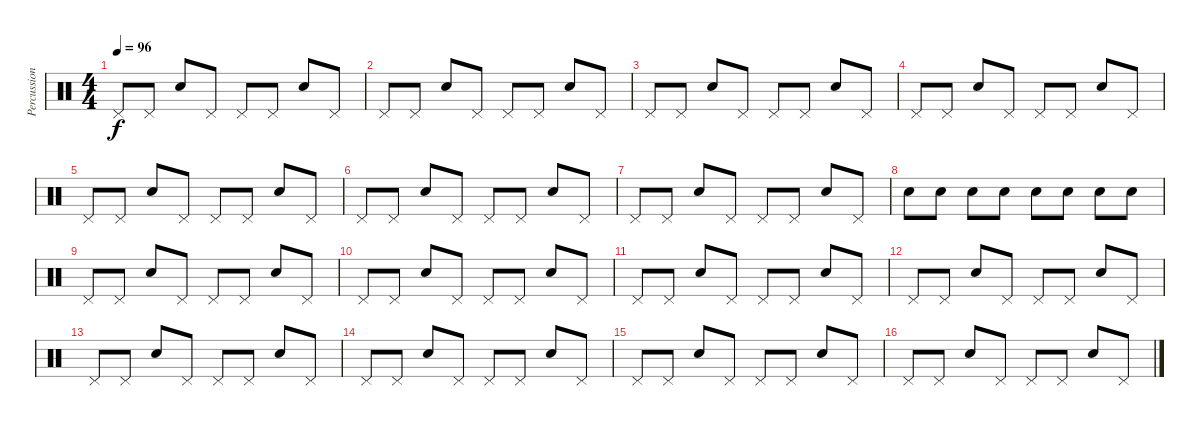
\track ("Percussions" "Percussion") {instrument percussion}
\staff {score}
\articulation defaults
\ts (4 4)
\tempo 96
\clef neutral
\ks c "Pedal Hi-Hat (hit)".8{dy f} "Pedal Hi-Hat (hit)".8 "Snare (hit) 2".8 "Pedal Hi-Hat (hit)".8 "Pedal Hi-Hat (hit)".8 "Pedal Hi-Hat (hit)".8 "Snare (hit) 2".8 "Pedal Hi-Hat (hit)".8
|
"Pedal Hi-Hat (hit)".8 "Pedal Hi-Hat (hit)".8 "Snare (hit) 2".8 "Pedal Hi-Hat (hit)".8 "Pedal Hi-Hat (hit)".8 "Pedal Hi-Hat (hit)".8 "Snare (hit) 2".8 "Pedal Hi-Hat (hit)".8 |
"Pedal Hi-Hat (hit)".8 "Pedal Hi-Hat (hit)".8 "Snare (hit) 2".8 "Pedal Hi-Hat (hit)".8 "Pedal Hi-Hat (hit)".8 "Pedal Hi-Hat (hit)".8 "Snare (hit) 2".8 "Pedal Hi-Hat (hit)".8 |
"Pedal Hi-Hat (hit)".8 "Pedal Hi-Hat (hit)".8 "Snare (hit) 2".8 "Pedal Hi-Hat (hit)".8 "Pedal Hi-Hat (hit)".8 "Pedal Hi-Hat (hit)".8 "Snare (hit) 2".8 "Pedal Hi-Hat (hit)".8 |
"Pedal Hi-Hat (hit)".8 "Pedal Hi-Hat (hit)".8 "Snare (hit) 2".8 "Pedal Hi-Hat (hit)".8 "Pedal Hi-Hat (hit)".8 "Pedal Hi-Hat (hit)".8 "Snare (hit) 2".8 "Pedal Hi-Hat (hit)".8 |
"Pedal Hi-Hat (hit)".8 "Pedal Hi-Hat (hit)".8 "Snare (hit) 2".8 "Pedal Hi-Hat (hit)".8 "Pedal Hi-Hat (hit)".8 "Pedal Hi-Hat (hit)".8 "Snare (hit) 2".8 "Pedal Hi-Hat (hit)".8 |
"Pedal Hi-Hat (hit)".8 "Pedal Hi-Hat (hit)".8 "Snare (hit) 2".8 "Pedal Hi-Hat (hit)".8 "Pedal Hi-Hat (hit)".8 "Pedal Hi-Hat (hit)".8 "Snare (hit) 2".8 "Pedal Hi-Hat (hit)".8 |
"Snare (hit) 2".8 "Snare (hit) 2".8 "Snare (hit) 2".8 "Snare (hit) 2".8 "Snare (hit) 2".8 "Snare (hit) 2".8 "Snare (hit) 2".8 "Snare (hit) 2".8 |
"Pedal Hi-Hat (hit)".8 "Pedal Hi-Hat (hit)".8 "Snare (hit) 2".8 "Pedal Hi-Hat (hit)".8 "Pedal Hi-Hat (hit)".8 "Pedal Hi-Hat (hit)".8 "Snare (hit) 2".8 "Pedal Hi-Hat (hit)".8 |
"Pedal Hi-Hat (hit)".8 "Pedal Hi-Hat (hit)".8 "Snare (hit) 2".8 "Pedal Hi-Hat (hit)".8 "Pedal Hi-Hat (hit)".8 "Pedal Hi-Hat (hit)".8 "Snare (hit) 2".8 "Pedal Hi-Hat (hit)".8 |
"Pedal Hi-Hat (hit)".8 "Pedal Hi-Hat (hit)".8 "Snare (hit) 2".8 "Pedal Hi-Hat (hit)".8 "Pedal Hi-Hat (hit)".8 "Pedal Hi-Hat (hit)".8 "Snare (hit) 2".8 "Pedal Hi-Hat (hit)".8 |
"Pedal Hi-Hat (hit)".8 "Pedal Hi-Hat (hit)".8 "Snare (hit) 2".8 "Pedal Hi-Hat (hit)".8 "Pedal Hi-Hat (hit)".8 "Pedal Hi-Hat (hit)".8 "Snare (hit) 2".8 "Pedal Hi-Hat (hit)".8 |
"Pedal Hi-Hat (hit)".8 "Pedal Hi-Hat (hit)".8 "Snare (hit) 2".8 "Pedal Hi-Hat (hit)".8 "Pedal Hi-Hat (hit)".8 "Pedal Hi-Hat (hit)".8 "Snare (hit) 2".8 "Pedal Hi-Hat (hit)".8 |
"Pedal Hi-Hat (hit)".8 "Pedal Hi-Hat (hit)".8 "Snare (hit) 2".8 "Pedal Hi-Hat (hit)".8 "Pedal Hi-Hat (hit)".8 "Pedal Hi-Hat (hit)".8 "Snare (hit) 2".8 "Pedal Hi-Hat (hit)".8 |
"Pedal Hi-Hat (hit)".8 "Pedal Hi-Hat (hit)".8 "Snare (hit) 2".8 "Pedal Hi-Hat (hit)".8 "Pedal Hi-Hat (hit)".8 "Pedal Hi-Hat (hit)".8 "Snare (hit) 2".8 "Pedal Hi-Hat (hit)".8 |
"Pedal Hi-Hat (hit)".8 "Pedal Hi-Hat (hit)".8 "Snare (hit) 2".8 "Pedal Hi-Hat (hit)".8 "Pedal Hi-Hat (hit)".8 "Pedal Hi-Hat (hit)".8 "Snare (hit) 2".8 "Pedal Hi-Hat (hit)".8
